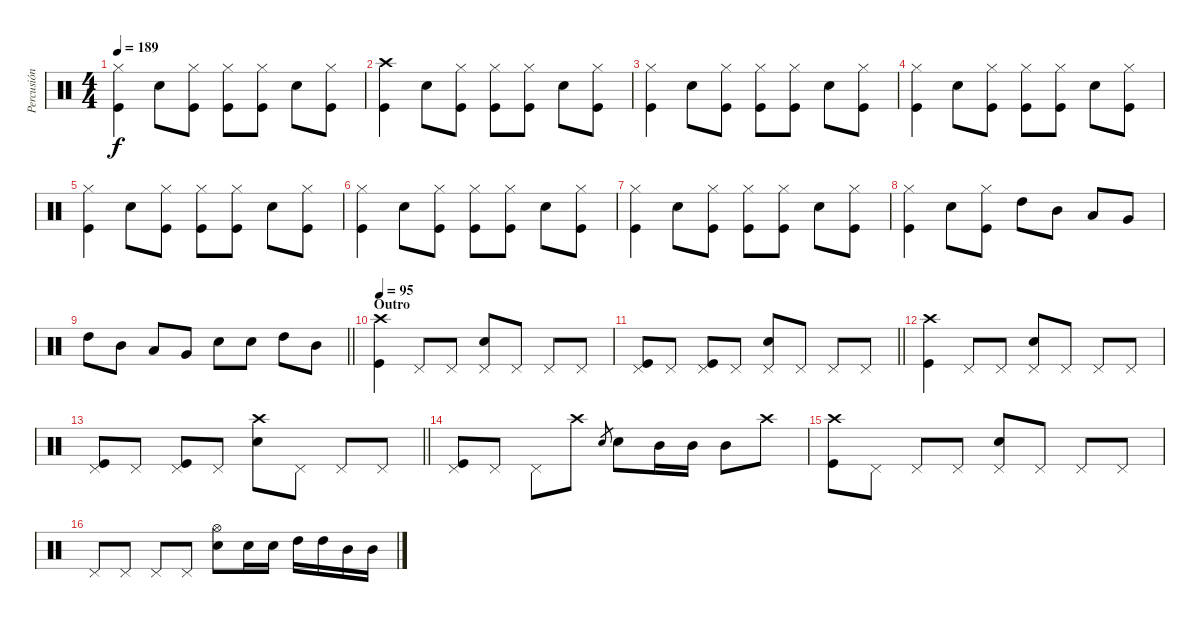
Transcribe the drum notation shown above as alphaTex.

\track ("Percusión" "Percusión") {instrument percussion}
\staff {score}
\articulation defaults
\ts (4 4)
\tempo 189
\clef neutral
\ks c
("Hi-Hat (closed)" "Kick (hit)").4{dy f} "Electric Snare (hit)".8 ("Hi-Hat (closed)" "Kick (hit)").8 ("Hi-Hat (closed)" "Kick (hit)").8 ("Hi-Hat (closed)" "Kick (hit)").8 "Electric Snare (hit)".8 ("Hi-Hat (closed)" "Kick (hit)").8 |
("Crash high (hit)" "Kick (hit)").4 "Electric Snare (hit)".8 ("Hi-Hat (closed)" "Kick (hit)").8 ("Hi-Hat (closed)" "Kick (hit)").8 ("Hi-Hat (closed)" "Kick (hit)").8 "Electric Snare (hit)".8 ("Hi-Hat (closed)" "Kick (hit)").8 |
("Hi-Hat (closed)" "Kick (hit)").4 "Electric Snare (hit)".8 ("Hi-Hat (closed)" "Kick (hit)").8 ("Hi-Hat (closed)" "Kick (hit)").8 ("Hi-Hat (closed)" "Kick (hit)").8 "Electric Snare (hit)".8 ("Hi-Hat (closed)" "Kick (hit)").8 |
("Hi-Hat (closed)" "Kick (hit)").4 "Electric Snare (hit)".8 ("Hi-Hat (closed)" "Kick (hit)").8 ("Hi-Hat (closed)" "Kick (hit)").8 ("Hi-Hat (closed)" "Kick (hit)").8 "Electric Snare (hit)".8 ("Hi-Hat (closed)" "Kick (hit)").8 |
("Hi-Hat (closed)" "Kick (hit)").4 "Electric Snare (hit)".8 ("Hi-Hat (closed)" "Kick (hit)").8 ("Hi-Hat (closed)" "Kick (hit)").8 ("Hi-Hat (closed)" "Kick (hit)").8 "Electric Snare (hit)".8 ("Hi-Hat (closed)" "Kick (hit)").8 |
("Hi-Hat (closed)" "Kick (hit)").4 "Electric Snare (hit)".8 ("Hi-Hat (closed)" "Kick (hit)").8 ("Hi-Hat (closed)" "Kick (hit)").8 ("Hi-Hat (closed)" "Kick (hit)").8 "Electric Snare (hit)".8 ("Hi-Hat (closed)" "Kick (hit)").8 |
("Hi-Hat (closed)" "Kick (hit)").4 "Electric Snare (hit)".8 ("Hi-Hat (closed)" "Kick (hit)").8 ("Hi-Hat (closed)" "Kick (hit)").8 ("Hi-Hat (closed)" "Kick (hit)").8 "Electric Snare (hit)".8 ("Hi-Hat (closed)" "Kick (hit)").8 |
("Hi-Hat (closed)" "Kick (hit)").4 "Electric Snare (hit)".8 ("Hi-Hat (closed)" "Kick (hit)").8 "High Tom (hit)".8 "Mid Tom (hit)".8 "Low Tom (hit)".8 "Very Low Tom (hit)".8 |
\barLineRight lightlight "High Tom (hit)".8 "Mid Tom (hit)".8 "Low Tom (hit)".8 "Very Low Tom (hit)".8 "Electric Snare (hit)".8 "Electric Snare (hit)".8 "High Tom (hit)".8 "Mid Tom (hit)".8
|
\section ("" "Outro")
\tempo 95
("Crash high (hit)" "Kick (hit)").4 "Pedal Hi-Hat (hit)".8 "Pedal Hi-Hat (hit)".8 ("Pedal Hi-Hat (hit)" "Electric Snare (hit)").8 "Pedal Hi-Hat (hit)".8 "Pedal Hi-Hat (hit)".8 "Pedal Hi-Hat (hit)".8 |
\barLineRight lightlight
("Pedal Hi-Hat (hit)" "Kick (hit)").8 "Pedal Hi-Hat (hit)".8 ("Pedal Hi-Hat (hit)" "Kick (hit)").8 "Pedal Hi-Hat (hit)".8 ("Pedal Hi-Hat (hit)" "Electric Snare (hit)").8 "Pedal Hi-Hat (hit)".8 "Pedal Hi-Hat (hit)".8 "Pedal Hi-Hat (hit)".8 |
("Crash high (hit)" "Kick (hit)").4 "Pedal Hi-Hat (hit)".8 "Pedal Hi-Hat (hit)".8 ("Pedal Hi-Hat (hit)" "Electric Snare (hit)").8 "Pedal Hi-Hat (hit)".8 "Pedal Hi-Hat (hit)".8 "Pedal Hi-Hat (hit)".8 |
\barLineRight lightlight
("Pedal Hi-Hat (hit)" "Kick (hit)").8 "Pedal Hi-Hat (hit)".8 ("Pedal Hi-Hat (hit)" "Kick (hit)").8 "Pedal Hi-Hat (hit)".8 ("Crash high (hit)" "Electric Snare (hit)").8 "Pedal Hi-Hat (hit)".8 "Pedal Hi-Hat (hit)".8 "Pedal Hi-Hat (hit)".8 |
("Pedal Hi-Hat (hit)" "Kick (hit)").8 "Pedal Hi-Hat (hit)".8 "Pedal Hi-Hat (hit)".8 "Crash high (hit)".8 "Electric Snare (hit)".8{gr} "Electric Snare (hit)".8 "Mid Tom (hit)".16 "Mid Tom (hit)".16 "Mid Tom (hit)".8 "Crash high (hit)".8 |
("Crash high (hit)" "Kick (hit)").8 "Pedal Hi-Hat (hit)".8 "Pedal Hi-Hat (hit)".8 "Pedal Hi-Hat (hit)".8 ("Pedal Hi-Hat (hit)" "Electric Snare (hit)").8 "Pedal Hi-Hat (hit)".8 "Pedal Hi-Hat (hit)".8 "Pedal Hi-Hat (hit)".8 |
"Pedal Hi-Hat (hit)".8 "Pedal Hi-Hat (hit)".8 "Pedal Hi-Hat (hit)".8 "Pedal Hi-Hat (hit)".8 ("Hi-Hat (open)" "Electric Snare (hit)").8 "Electric Snare (hit)".16 "Electric Snare (hit)".16 "High Tom (hit)".16 "High Tom (hit)".16 "Mid Tom (hit)".16 "Mid Tom (hit)".16
